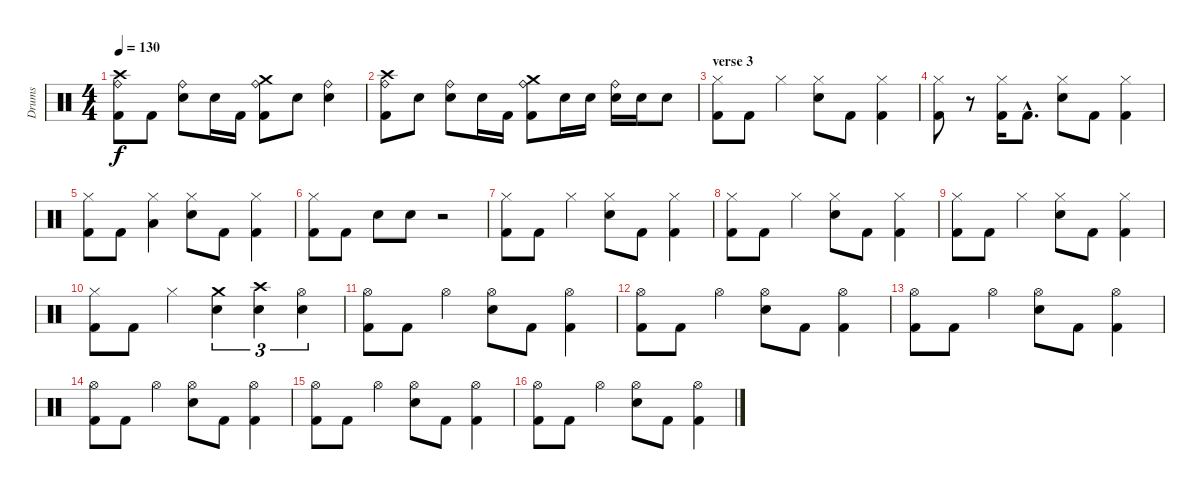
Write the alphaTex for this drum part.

\track ("Drums" "Drums") {instrument percussion}
\staff {score}
\articulation defaults
\ts (4 4)
\tempo 130
\clef neutral
\ks c
("Crash high (hit)" "Ride (bell)" "Kick (hit) 2").8{dy f} "Kick (hit) 2".8 ("Ride (bell)" "Electric Snare (hit)").8 "Electric Snare (hit)".16 "Kick (hit) 2".16 ("Crash medium (hit)" "Ride (bell)" "Kick (hit) 2").8 "Electric Snare (hit)".8 ("Ride (bell)" "Electric Snare (hit)").4 |
("Crash high (hit)" "Ride (bell)" "Kick (hit) 2").8 "Electric Snare (hit)".8 ("Ride (bell)" "Electric Snare (hit)").8 "Electric Snare (hit)".16 "Kick (hit) 2".16 ("Crash medium (hit)" "Ride (bell)" "Kick (hit) 2").8 "Electric Snare (hit)".16 "Electric Snare (hit)".16 ("Ride (bell)" "Electric Snare (hit)").16 "Electric Snare (hit)".16 "Electric Snare (hit)".8 |
\section ("" "verse 3")
("Hi-Hat (closed)" "Kick (hit) 2").8 "Kick (hit) 2".8 "Hi-Hat (closed)".4 ("Hi-Hat (closed)" "Electric Snare (hit)").8 "Kick (hit) 2".8 ("Hi-Hat (closed)" "Kick (hit) 2").4 |
("Hi-Hat (closed)" "Kick (hit) 2").8 r.8 ("Hi-Hat (closed)" "Kick (hit) 2").16 "Kick (hit) 2"{hac}.8{d} ("Hi-Hat (closed)" "Electric Snare (hit)").8 "Kick (hit) 2".8 ("Hi-Hat (closed)" "Kick (hit) 2").4 |
("Hi-Hat (closed)" "Kick (hit) 2").8 "Kick (hit) 2".8 ("Hi-Hat (closed)" "Low Tom (hit)").4 ("Hi-Hat (closed)" "Electric Snare (hit)").8 "Kick (hit) 2".8 ("Hi-Hat (closed)" "Kick (hit) 2").4 |
("Hi-Hat (closed)" "Kick (hit) 2").8 "Kick (hit) 2".8 "Electric Snare (hit)".8 "Electric Snare (hit)".8 r.2 |
("Hi-Hat (closed)" "Kick (hit) 2").8 "Kick (hit) 2".8 "Hi-Hat (closed)".4 ("Hi-Hat (closed)" "Electric Snare (hit)").8 "Kick (hit) 2".8 ("Hi-Hat (closed)" "Kick (hit) 2").4 |
("Hi-Hat (closed)" "Kick (hit) 2").8 "Kick (hit) 2".8 "Hi-Hat (closed)".4 ("Hi-Hat (closed)" "Electric Snare (hit)").8 "Kick (hit) 2".8 ("Hi-Hat (closed)" "Kick (hit) 2").4 |
("Hi-Hat (closed)" "Kick (hit) 2").8 "Kick (hit) 2".8 "Hi-Hat (closed)".4 ("Hi-Hat (closed)" "Electric Snare (hit)").8 "Kick (hit) 2".8 ("Hi-Hat (closed)" "Kick (hit) 2").4 |
("Hi-Hat (closed)" "Kick (hit) 2").8 "Kick (hit) 2".8 "Hi-Hat (closed)".4 ("Crash medium (hit)" "Electric Snare (hit)").4{tu (3 2)} ("Crash high (hit)" "Electric Snare (hit)").4{tu (3 2)} ("Hi-Hat (open)" "Electric Snare (hit)").4{tu (3 2)} |
("Hi-Hat (open)" "Kick (hit) 2").8 "Kick (hit) 2".8 "Hi-Hat (open)".4 ("Hi-Hat (open)" "Electric Snare (hit)").8 "Kick (hit) 2".8 ("Hi-Hat (open)" "Kick (hit) 2").4 |
("Hi-Hat (open)" "Kick (hit) 2").8 "Kick (hit) 2".8 "Hi-Hat (open)".4 ("Hi-Hat (open)" "Electric Snare (hit)").8 "Kick (hit) 2".8 ("Hi-Hat (open)" "Kick (hit) 2").4 |
("Hi-Hat (open)" "Kick (hit) 2").8 "Kick (hit) 2".8 "Hi-Hat (open)".4 ("Hi-Hat (open)" "Electric Snare (hit)").8 "Kick (hit) 2".8 ("Hi-Hat (open)" "Kick (hit) 2").4 |
("Hi-Hat (open)" "Kick (hit) 2").8 "Kick (hit) 2".8 "Hi-Hat (open)".4 ("Hi-Hat (open)" "Electric Snare (hit)").8 "Kick (hit) 2".8 ("Hi-Hat (open)" "Kick (hit) 2").4 |
("Hi-Hat (open)" "Kick (hit) 2").8 "Kick (hit) 2".8 "Hi-Hat (open)".4 ("Hi-Hat (open)" "Electric Snare (hit)").8 "Kick (hit) 2".8 ("Hi-Hat (open)" "Kick (hit) 2").4 |
("Hi-Hat (open)" "Kick (hit) 2").8 "Kick (hit) 2".8 "Hi-Hat (open)".4 ("Hi-Hat (open)" "Electric Snare (hit)").8 "Kick (hit) 2".8 ("Hi-Hat (open)" "Kick (hit) 2").4
